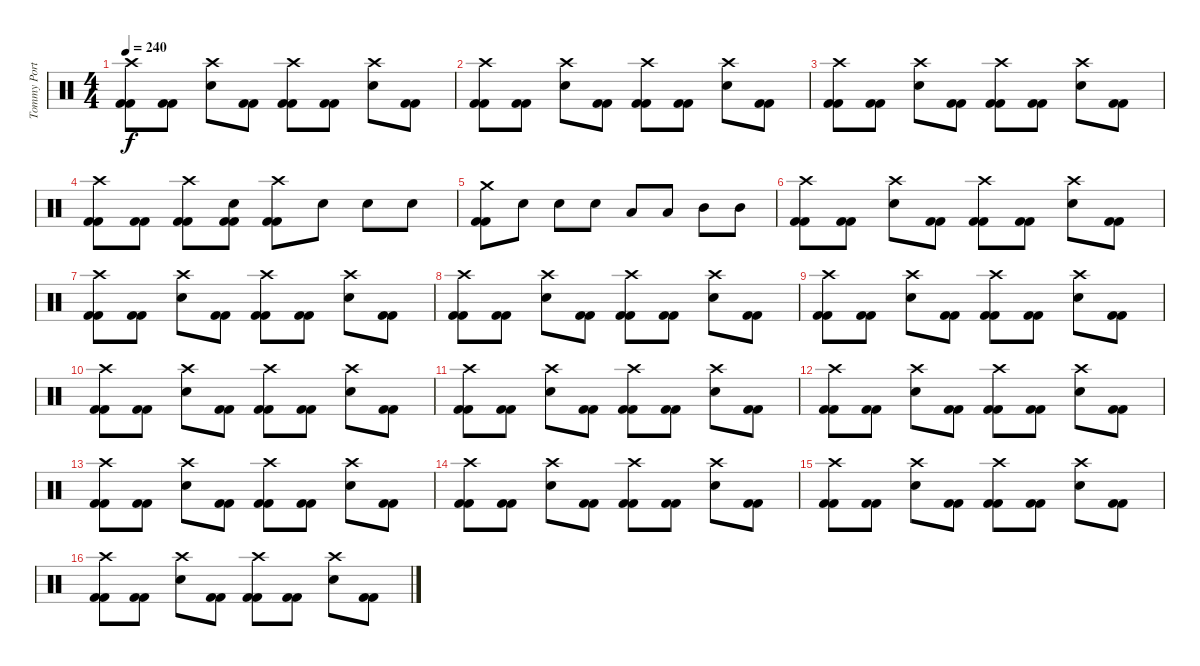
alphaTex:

\track ("Tommy Portimo " "Tommy Port") {instrument percussion}
\staff {score}
\articulation defaults
\ts (4 4)
\tempo 240
\clef neutral
\ks c
("Crash high (hit)" "Kick (hit) 2" "Kick (hit) 2").8{dy f} ("Kick (hit) 2" "Kick (hit) 2").8 ("Crash high (hit)" "Electric Snare (hit)").8 ("Kick (hit) 2" "Kick (hit) 2").8 ("Crash high (hit)" "Kick (hit) 2" "Kick (hit) 2").8 ("Kick (hit) 2" "Kick (hit) 2").8 ("Crash high (hit)" "Electric Snare (hit)").8 ("Kick (hit) 2" "Kick (hit) 2").8 |
("Crash high (hit)" "Kick (hit) 2" "Kick (hit) 2").8 ("Kick (hit) 2" "Kick (hit) 2").8 ("Crash high (hit)" "Electric Snare (hit)").8 ("Kick (hit) 2" "Kick (hit) 2").8 ("Crash high (hit)" "Kick (hit) 2" "Kick (hit) 2").8 ("Kick (hit) 2" "Kick (hit) 2").8 ("Crash high (hit)" "Electric Snare (hit)").8 ("Kick (hit) 2" "Kick (hit) 2").8 |
("Crash high (hit)" "Kick (hit) 2" "Kick (hit) 2").8 ("Kick (hit) 2" "Kick (hit) 2").8 ("Crash high (hit)" "Electric Snare (hit)").8 ("Kick (hit) 2" "Kick (hit) 2").8 ("Crash high (hit)" "Kick (hit) 2" "Kick (hit) 2").8 ("Kick (hit) 2" "Kick (hit) 2").8 ("Crash high (hit)" "Electric Snare (hit)").8 ("Kick (hit) 2" "Kick (hit) 2").8 |
("Crash high (hit)" "Kick (hit) 2" "Kick (hit) 2").8 ("Kick (hit) 2" "Kick (hit) 2").8 ("Crash high (hit)" "Kick (hit) 2" "Kick (hit) 2").8 ("Electric Snare (hit)" "Kick (hit) 2" "Kick (hit) 2").8 ("Crash high (hit)" "Kick (hit) 2" "Kick (hit) 2").8 "Electric Snare (hit)".8 "Electric Snare (hit)".8 "Electric Snare (hit)".8 |
("Crash medium (hit)" "Kick (hit) 2" "Kick (hit) 2").8 "Electric Snare (hit)".8 "Electric Snare (hit)".8 "Electric Snare (hit)".8 "Low Tom (hit)".8 "Low Tom (hit)".8 "Mid Tom (hit)".8 "Mid Tom (hit)".8 |
("Crash high (hit)" "Kick (hit) 2" "Kick (hit) 2").8 ("Kick (hit) 2" "Kick (hit) 2").8 ("Crash high (hit)" "Electric Snare (hit)").8 ("Kick (hit) 2" "Kick (hit) 2").8 ("Crash high (hit)" "Kick (hit) 2" "Kick (hit) 2").8 ("Kick (hit) 2" "Kick (hit) 2").8 ("Crash high (hit)" "Electric Snare (hit)").8 ("Kick (hit) 2" "Kick (hit) 2").8 |
("Crash high (hit)" "Kick (hit) 2" "Kick (hit) 2").8 ("Kick (hit) 2" "Kick (hit) 2").8 ("Crash high (hit)" "Electric Snare (hit)").8 ("Kick (hit) 2" "Kick (hit) 2").8 ("Crash high (hit)" "Kick (hit) 2" "Kick (hit) 2").8 ("Kick (hit) 2" "Kick (hit) 2").8 ("Crash high (hit)" "Electric Snare (hit)").8 ("Kick (hit) 2" "Kick (hit) 2").8 |
("Crash high (hit)" "Kick (hit) 2" "Kick (hit) 2").8 ("Kick (hit) 2" "Kick (hit) 2").8 ("Crash high (hit)" "Electric Snare (hit)").8 ("Kick (hit) 2" "Kick (hit) 2").8 ("Crash high (hit)" "Kick (hit) 2" "Kick (hit) 2").8 ("Kick (hit) 2" "Kick (hit) 2").8 ("Crash high (hit)" "Electric Snare (hit)").8 ("Kick (hit) 2" "Kick (hit) 2").8 |
("Crash high (hit)" "Kick (hit) 2" "Kick (hit) 2").8 ("Kick (hit) 2" "Kick (hit) 2").8 ("Crash high (hit)" "Electric Snare (hit)").8 ("Kick (hit) 2" "Kick (hit) 2").8 ("Crash high (hit)" "Kick (hit) 2" "Kick (hit) 2").8 ("Kick (hit) 2" "Kick (hit) 2").8 ("Crash high (hit)" "Electric Snare (hit)").8 ("Kick (hit) 2" "Kick (hit) 2").8 |
("Crash high (hit)" "Kick (hit) 2" "Kick (hit) 2").8 ("Kick (hit) 2" "Kick (hit) 2").8 ("Crash high (hit)" "Electric Snare (hit)").8 ("Kick (hit) 2" "Kick (hit) 2").8 ("Crash high (hit)" "Kick (hit) 2" "Kick (hit) 2").8 ("Kick (hit) 2" "Kick (hit) 2").8 ("Crash high (hit)" "Electric Snare (hit)").8 ("Kick (hit) 2" "Kick (hit) 2").8 |
("Crash high (hit)" "Kick (hit) 2" "Kick (hit) 2").8 ("Kick (hit) 2" "Kick (hit) 2").8 ("Crash high (hit)" "Electric Snare (hit)").8 ("Kick (hit) 2" "Kick (hit) 2").8 ("Crash high (hit)" "Kick (hit) 2" "Kick (hit) 2").8 ("Kick (hit) 2" "Kick (hit) 2").8 ("Crash high (hit)" "Electric Snare (hit)").8 ("Kick (hit) 2" "Kick (hit) 2").8 |
("Crash high (hit)" "Kick (hit) 2" "Kick (hit) 2").8 ("Kick (hit) 2" "Kick (hit) 2").8 ("Crash high (hit)" "Electric Snare (hit)").8 ("Kick (hit) 2" "Kick (hit) 2").8 ("Crash high (hit)" "Kick (hit) 2" "Kick (hit) 2").8 ("Kick (hit) 2" "Kick (hit) 2").8 ("Crash high (hit)" "Electric Snare (hit)").8 ("Kick (hit) 2" "Kick (hit) 2").8 |
("Crash high (hit)" "Kick (hit) 2" "Kick (hit) 2").8 ("Kick (hit) 2" "Kick (hit) 2").8 ("Crash high (hit)" "Electric Snare (hit)").8 ("Kick (hit) 2" "Kick (hit) 2").8 ("Crash high (hit)" "Kick (hit) 2" "Kick (hit) 2").8 ("Kick (hit) 2" "Kick (hit) 2").8 ("Crash high (hit)" "Electric Snare (hit)").8 ("Kick (hit) 2" "Kick (hit) 2").8 |
("Crash high (hit)" "Kick (hit) 2" "Kick (hit) 2").8 ("Kick (hit) 2" "Kick (hit) 2").8 ("Crash high (hit)" "Electric Snare (hit)").8 ("Kick (hit) 2" "Kick (hit) 2").8 ("Crash high (hit)" "Kick (hit) 2" "Kick (hit) 2").8 ("Kick (hit) 2" "Kick (hit) 2").8 ("Crash high (hit)" "Electric Snare (hit)").8 ("Kick (hit) 2" "Kick (hit) 2").8 |
("Crash high (hit)" "Kick (hit) 2" "Kick (hit) 2").8 ("Kick (hit) 2" "Kick (hit) 2").8 ("Crash high (hit)" "Electric Snare (hit)").8 ("Kick (hit) 2" "Kick (hit) 2").8 ("Crash high (hit)" "Kick (hit) 2" "Kick (hit) 2").8 ("Kick (hit) 2" "Kick (hit) 2").8 ("Crash high (hit)" "Electric Snare (hit)").8 ("Kick (hit) 2" "Kick (hit) 2").8 |
("Crash high (hit)" "Kick (hit) 2" "Kick (hit) 2").8 ("Kick (hit) 2" "Kick (hit) 2").8 ("Crash high (hit)" "Electric Snare (hit)").8 ("Kick (hit) 2" "Kick (hit) 2").8 ("Crash high (hit)" "Kick (hit) 2" "Kick (hit) 2").8 ("Kick (hit) 2" "Kick (hit) 2").8 ("Crash high (hit)" "Electric Snare (hit)").8 ("Kick (hit) 2" "Kick (hit) 2").8
